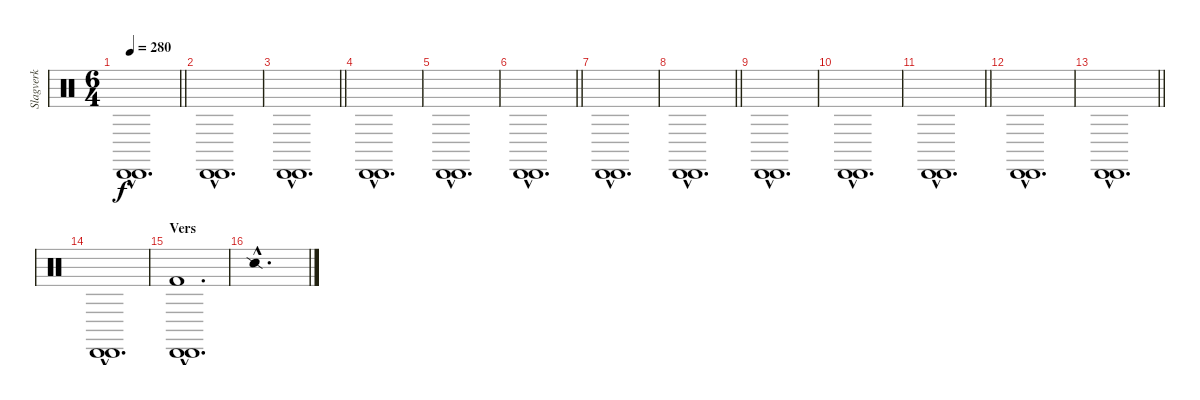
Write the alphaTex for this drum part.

\track ("Slagverk" "Slagverk") {instrument percussion}
\staff {score}
\articulation defaults
\ts (6 4)
\tempo 280
\clef neutral
\barLineRight lightlight
\ks c
("Cabasa (hit)"{hac} "Cabasa (hit)"{hac}).1{d dy f} |
("Cabasa (hit)"{hac} "Cabasa (hit)"{hac}).1{d} |
\barLineRight lightlight
("Cabasa (hit)"{hac} "Cabasa (hit)"{hac}).1{d} |
("Cabasa (hit)"{hac} "Cabasa (hit)"{hac}).1{d} |
("Cabasa (hit)"{hac} "Cabasa (hit)"{hac}).1{d} |
\barLineRight lightlight
("Cabasa (hit)"{hac} "Cabasa (hit)"{hac}).1{d} |
("Cabasa (hit)"{hac} "Cabasa (hit)"{hac}).1{d} |
\barLineRight lightlight
("Cabasa (hit)"{hac} "Cabasa (hit)"{hac}).1{d} |
("Cabasa (hit)"{hac} "Cabasa (hit)"{hac}).1{d} |
("Cabasa (hit)"{hac} "Cabasa (hit)"{hac}).1{d} |
\barLineRight lightlight
("Cabasa (hit)"{hac} "Cabasa (hit)"{hac}).1{d} |
("Cabasa (hit)"{hac} "Cabasa (hit)"{hac}).1{d} |
\barLineRight lightlight
("Cabasa (hit)"{hac} "Cabasa (hit)"{hac}).1{d} |
("Cabasa (hit)"{hac} "Cabasa (hit)"{hac}).1{d} |
\section ("" "Vers")
("Cabasa (hit)"{hac} "Cabasa (hit)"{hac} "Kick (hit) 2"{hac}).1{d} |
"Snare (side stick) 2"{hac}.1{d}
